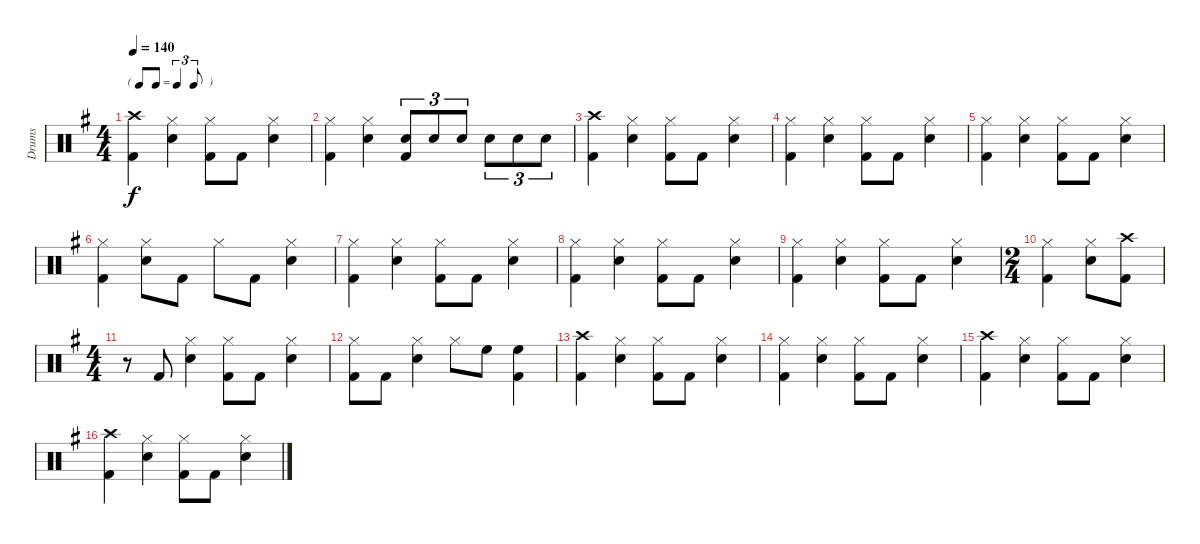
\track ("Drums" "Drums") {instrument percussion}
\staff {score}
\articulation defaults
\ts (4 4)
\tf triplet8th
\tempo 140
\clef neutral
\ks eminor
("Kick (hit) 2" "Crash high (hit)").4{dy f} ("Snare (hit) 2" "Hi-Hat (closed)").4 ("Kick (hit) 2" "Hi-Hat (closed)").8 "Kick (hit) 2".8 ("Snare (hit) 2" "Hi-Hat (closed)").4 |
("Kick (hit) 2" "Hi-Hat (closed)").4 ("Snare (hit) 2" "Hi-Hat (closed)").4 ("Kick (hit) 2" "Snare (hit) 2").8{tu (3 2)} "Snare (hit) 2".8{tu (3 2)} "Snare (hit) 2".8{tu (3 2)} "Snare (hit) 2".8{tu (3 2)} "Snare (hit) 2".8{tu (3 2)} "Snare (hit) 2".8{tu (3 2)} |
("Kick (hit) 2" "Crash high (hit)").4 ("Snare (hit) 2" "Hi-Hat (closed)").4 ("Kick (hit) 2" "Hi-Hat (closed)").8 "Kick (hit) 2".8 ("Snare (hit) 2" "Hi-Hat (closed)").4 |
("Kick (hit) 2" "Hi-Hat (closed)").4 ("Snare (hit) 2" "Hi-Hat (closed)").4 ("Kick (hit) 2" "Hi-Hat (closed)").8 "Kick (hit) 2".8 ("Snare (hit) 2" "Hi-Hat (closed)").4 |
("Kick (hit) 2" "Hi-Hat (closed)").4 ("Snare (hit) 2" "Hi-Hat (closed)").4 ("Kick (hit) 2" "Hi-Hat (closed)").8 "Kick (hit) 2".8 ("Snare (hit) 2" "Hi-Hat (closed)").4 |
("Kick (hit) 2" "Hi-Hat (closed)").4 ("Snare (hit) 2" "Hi-Hat (closed)").8 "Kick (hit) 2".8 "Hi-Hat (closed)".8 "Kick (hit) 2".8 ("Snare (hit) 2" "Hi-Hat (closed)").4 |
("Kick (hit) 2" "Hi-Hat (closed)").4 ("Snare (hit) 2" "Hi-Hat (closed)").4 ("Kick (hit) 2" "Hi-Hat (closed)").8 "Kick (hit) 2".8 ("Snare (hit) 2" "Hi-Hat (closed)").4 |
("Kick (hit) 2" "Hi-Hat (closed)").4 ("Snare (hit) 2" "Hi-Hat (closed)").4 ("Kick (hit) 2" "Hi-Hat (closed)").8 "Kick (hit) 2".8 ("Snare (hit) 2" "Hi-Hat (closed)").4 |
("Kick (hit) 2" "Hi-Hat (closed)").4 ("Snare (hit) 2" "Hi-Hat (closed)").4 ("Kick (hit) 2" "Hi-Hat (closed)").8 "Kick (hit) 2".8 ("Snare (hit) 2" "Hi-Hat (closed)").4 |
\ts (2 4)
("Kick (hit) 2" "Hi-Hat (closed)").4 ("Snare (hit) 2" "Hi-Hat (closed)").8 ("Kick (hit) 2" "Crash high (hit)").8 |
\ts (4 4)
r.8 "Kick (hit) 2".8 ("Snare (hit) 2" "Hi-Hat (closed)").4 ("Kick (hit) 2" "Hi-Hat (closed)").8 "Kick (hit) 2".8 ("Snare (hit) 2" "Hi-Hat (closed)").4 |
("Kick (hit) 2" "Hi-Hat (closed)").8 "Kick (hit) 2".8 ("Snare (hit) 2" "Hi-Hat (closed)").4 "Hi-Hat (closed)".8 "High Floor Tom (hit)".8 ("Kick (hit) 2" "High Floor Tom (hit)").4 |
("Kick (hit) 2" "Crash high (hit)").4 ("Snare (hit) 2" "Hi-Hat (closed)").4 ("Kick (hit) 2" "Hi-Hat (closed)").8 "Kick (hit) 2".8 ("Snare (hit) 2" "Hi-Hat (closed)").4 |
("Kick (hit) 2" "Hi-Hat (closed)").4 ("Snare (hit) 2" "Hi-Hat (closed)").4 ("Kick (hit) 2" "Hi-Hat (closed)").8 "Kick (hit) 2".8 ("Snare (hit) 2" "Hi-Hat (closed)").4 |
("Kick (hit) 2" "Crash high (hit)").4 ("Snare (hit) 2" "Hi-Hat (closed)").4 ("Kick (hit) 2" "Hi-Hat (closed)").8 "Kick (hit) 2".8 ("Snare (hit) 2" "Hi-Hat (closed)").4 |
("Kick (hit) 2" "Crash high (hit)").4 ("Snare (hit) 2" "Hi-Hat (closed)").4 ("Kick (hit) 2" "Hi-Hat (closed)").8 "Kick (hit) 2".8 ("Snare (hit) 2" "Hi-Hat (closed)").4
